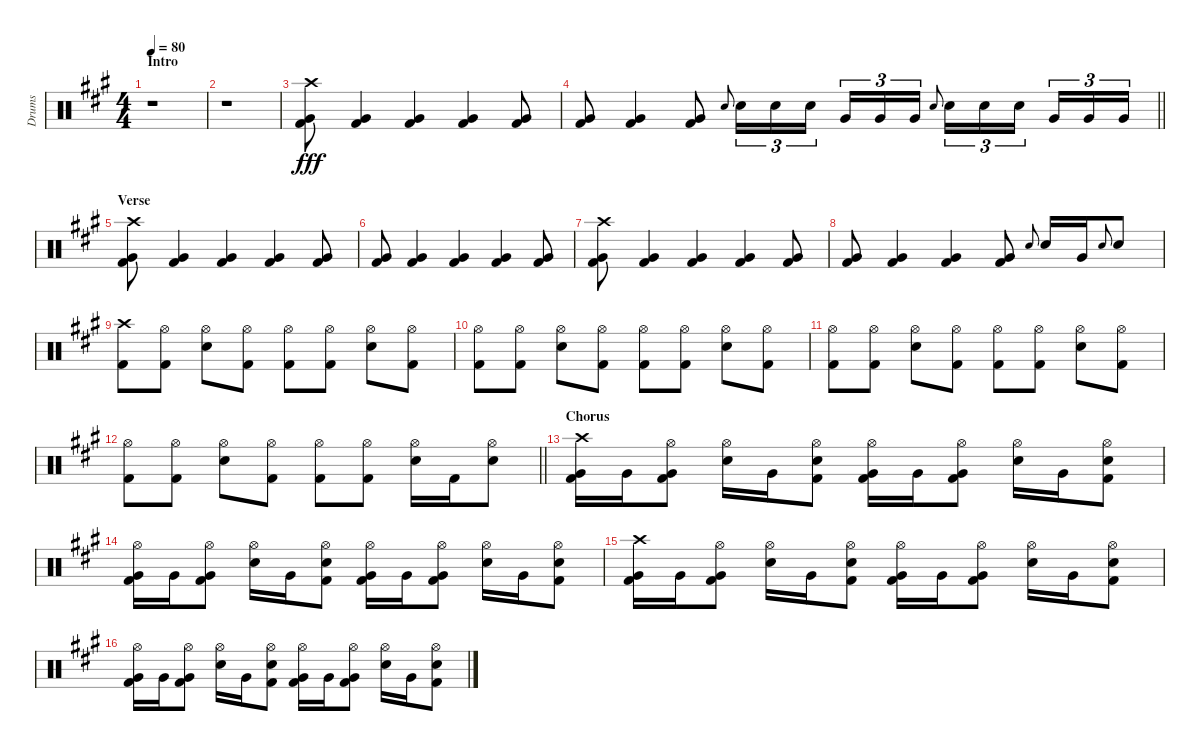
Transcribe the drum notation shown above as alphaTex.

\track ("Drums" "Drums") {instrument percussion}
\staff {score}
\articulation defaults
\ts (4 4)
\section ("" "Intro")
\tempo 80
\clef neutral
\ks f#minor
r.1{dy fff} |
r.1 |
("Crash high (hit)" "Very Low Tom (hit)" "Kick (hit) 2").8 ("Very Low Tom (hit)" "Kick (hit) 2").4 ("Very Low Tom (hit)" "Kick (hit) 2").4 ("Very Low Tom (hit)" "Kick (hit) 2").4 ("Very Low Tom (hit)" "Kick (hit) 2").8 |
\barLineRight lightlight
("Very Low Tom (hit)" "Kick (hit) 2").8 ("Very Low Tom (hit)" "Kick (hit) 2").4 ("Very Low Tom (hit)" "Kick (hit) 2").8 "Electric Snare (hit)".8{gr onbeat} "Electric Snare (hit)".16{tu (3 2)} "Electric Snare (hit)".16{tu (3 2)} "Electric Snare (hit)".16{tu (3 2) beam splitsecondary} "Very Low Tom (hit)".16{tu (3 2)} "Very Low Tom (hit)".16{tu (3 2)} "Very Low Tom (hit)".16{tu (3 2)} "Electric Snare (hit)".8{gr onbeat} "Electric Snare (hit)".16{tu (3 2)} "Electric Snare (hit)".16{tu (3 2)} "Electric Snare (hit)".16{tu (3 2) beam splitsecondary} "Very Low Tom (hit)".16{tu (3 2)} "Very Low Tom (hit)".16{tu (3 2)} "Very Low Tom (hit)".16{tu (3 2)} |
\section ("" "Verse")
("Crash high (hit)" "Very Low Tom (hit)" "Kick (hit) 2").8 ("Very Low Tom (hit)" "Kick (hit) 2").4 ("Very Low Tom (hit)" "Kick (hit) 2").4 ("Very Low Tom (hit)" "Kick (hit) 2").4 ("Very Low Tom (hit)" "Kick (hit) 2").8 |
("Very Low Tom (hit)" "Kick (hit) 2").8 ("Very Low Tom (hit)" "Kick (hit) 2").4 ("Very Low Tom (hit)" "Kick (hit) 2").4 ("Very Low Tom (hit)" "Kick (hit) 2").4 ("Very Low Tom (hit)" "Kick (hit) 2").8 |
("Crash high (hit)" "Very Low Tom (hit)" "Kick (hit) 2").8 ("Very Low Tom (hit)" "Kick (hit) 2").4 ("Very Low Tom (hit)" "Kick (hit) 2").4 ("Very Low Tom (hit)" "Kick (hit) 2").4 ("Very Low Tom (hit)" "Kick (hit) 2").8 |
("Very Low Tom (hit)" "Kick (hit) 2").8 ("Very Low Tom (hit)" "Kick (hit) 2").4 ("Very Low Tom (hit)" "Kick (hit) 2").4 ("Very Low Tom (hit)" "Kick (hit) 2").8 "Electric Snare (hit)".8{gr onbeat} "Electric Snare (hit)".16 "Very Low Tom (hit)".16 "Electric Snare (hit)".8{gr onbeat} "Electric Snare (hit)".8 |
("Crash high (hit)" "Kick (hit) 2").8 ("Hi-Hat (open)" "Kick (hit) 2").8 ("Hi-Hat (open)" "Electric Snare (hit)").8 ("Hi-Hat (open)" "Kick (hit) 2").8 ("Hi-Hat (open)" "Kick (hit) 2").8 ("Hi-Hat (open)" "Kick (hit) 2").8 ("Hi-Hat (open)" "Electric Snare (hit)").8 ("Hi-Hat (open)" "Kick (hit) 2").8 |
("Hi-Hat (open)" "Kick (hit) 2").8 ("Hi-Hat (open)" "Kick (hit) 2").8 ("Hi-Hat (open)" "Electric Snare (hit)").8 ("Hi-Hat (open)" "Kick (hit) 2").8 ("Hi-Hat (open)" "Kick (hit) 2").8 ("Hi-Hat (open)" "Kick (hit) 2").8 ("Hi-Hat (open)" "Electric Snare (hit)").8 ("Hi-Hat (open)" "Kick (hit) 2").8 |
("Hi-Hat (open)" "Kick (hit) 2").8 ("Hi-Hat (open)" "Kick (hit) 2").8 ("Hi-Hat (open)" "Electric Snare (hit)").8 ("Hi-Hat (open)" "Kick (hit) 2").8 ("Hi-Hat (open)" "Kick (hit) 2").8 ("Hi-Hat (open)" "Kick (hit) 2").8 ("Hi-Hat (open)" "Electric Snare (hit)").8 ("Hi-Hat (open)" "Kick (hit) 2").8 |
\barLineRight lightlight
("Hi-Hat (open)" "Kick (hit) 2").8 ("Hi-Hat (open)" "Kick (hit) 2").8 ("Hi-Hat (open)" "Electric Snare (hit)").8 ("Hi-Hat (open)" "Kick (hit) 2").8 ("Hi-Hat (open)" "Kick (hit) 2").8 ("Hi-Hat (open)" "Kick (hit) 2").8 ("Hi-Hat (open)" "Electric Snare (hit)").16 "Kick (hit) 2".16 ("Hi-Hat (open)" "Electric Snare (hit)").8 |
\section ("" "Chorus")
("Crash high (hit)" "Very Low Tom (hit)" "Kick (hit) 2").16 "Very Low Tom (hit)".16 ("Hi-Hat (open)" "Very Low Tom (hit)" "Kick (hit) 2").8 ("Hi-Hat (open)" "Electric Snare (hit)").16 "Very Low Tom (hit)".16 ("Hi-Hat (open)" "Electric Snare (hit)" "Kick (hit) 2").8 ("Hi-Hat (open)" "Very Low Tom (hit)" "Kick (hit) 2").16 "Very Low Tom (hit)".16 ("Hi-Hat (open)" "Very Low Tom (hit)" "Kick (hit) 2").8 ("Hi-Hat (open)" "Electric Snare (hit)").16 "Very Low Tom (hit)".16 ("Hi-Hat (open)" "Electric Snare (hit)" "Kick (hit) 2").8 |
("Hi-Hat (open)" "Very Low Tom (hit)" "Kick (hit) 2").16 "Very Low Tom (hit)".16 ("Hi-Hat (open)" "Very Low Tom (hit)" "Kick (hit) 2").8 ("Hi-Hat (open)" "Electric Snare (hit)").16 "Very Low Tom (hit)".16 ("Hi-Hat (open)" "Electric Snare (hit)" "Kick (hit) 2").8 ("Hi-Hat (open)" "Very Low Tom (hit)" "Kick (hit) 2").16 "Very Low Tom (hit)".16 ("Hi-Hat (open)" "Very Low Tom (hit)" "Kick (hit) 2").8 ("Hi-Hat (open)" "Electric Snare (hit)").16 "Very Low Tom (hit)".16 ("Hi-Hat (open)" "Electric Snare (hit)" "Kick (hit) 2").8 |
("Crash high (hit)" "Very Low Tom (hit)" "Kick (hit) 2").16 "Very Low Tom (hit)".16 ("Hi-Hat (open)" "Very Low Tom (hit)" "Kick (hit) 2").8 ("Hi-Hat (open)" "Electric Snare (hit)").16 "Very Low Tom (hit)".16 ("Hi-Hat (open)" "Electric Snare (hit)" "Kick (hit) 2").8 ("Hi-Hat (open)" "Very Low Tom (hit)" "Kick (hit) 2").16 "Very Low Tom (hit)".16 ("Hi-Hat (open)" "Very Low Tom (hit)" "Kick (hit) 2").8 ("Hi-Hat (open)" "Electric Snare (hit)").16 "Very Low Tom (hit)".16 ("Hi-Hat (open)" "Electric Snare (hit)" "Kick (hit) 2").8 |
("Hi-Hat (open)" "Very Low Tom (hit)" "Kick (hit) 2").16 "Very Low Tom (hit)".16 ("Hi-Hat (open)" "Very Low Tom (hit)" "Kick (hit) 2").8 ("Hi-Hat (open)" "Electric Snare (hit)").16 "Very Low Tom (hit)".16 ("Hi-Hat (open)" "Electric Snare (hit)" "Kick (hit) 2").8 ("Hi-Hat (open)" "Very Low Tom (hit)" "Kick (hit) 2").16 "Very Low Tom (hit)".16 ("Hi-Hat (open)" "Very Low Tom (hit)" "Kick (hit) 2").8 ("Hi-Hat (open)" "Electric Snare (hit)").16 "Very Low Tom (hit)".16 ("Hi-Hat (open)" "Electric Snare (hit)" "Kick (hit) 2").8
